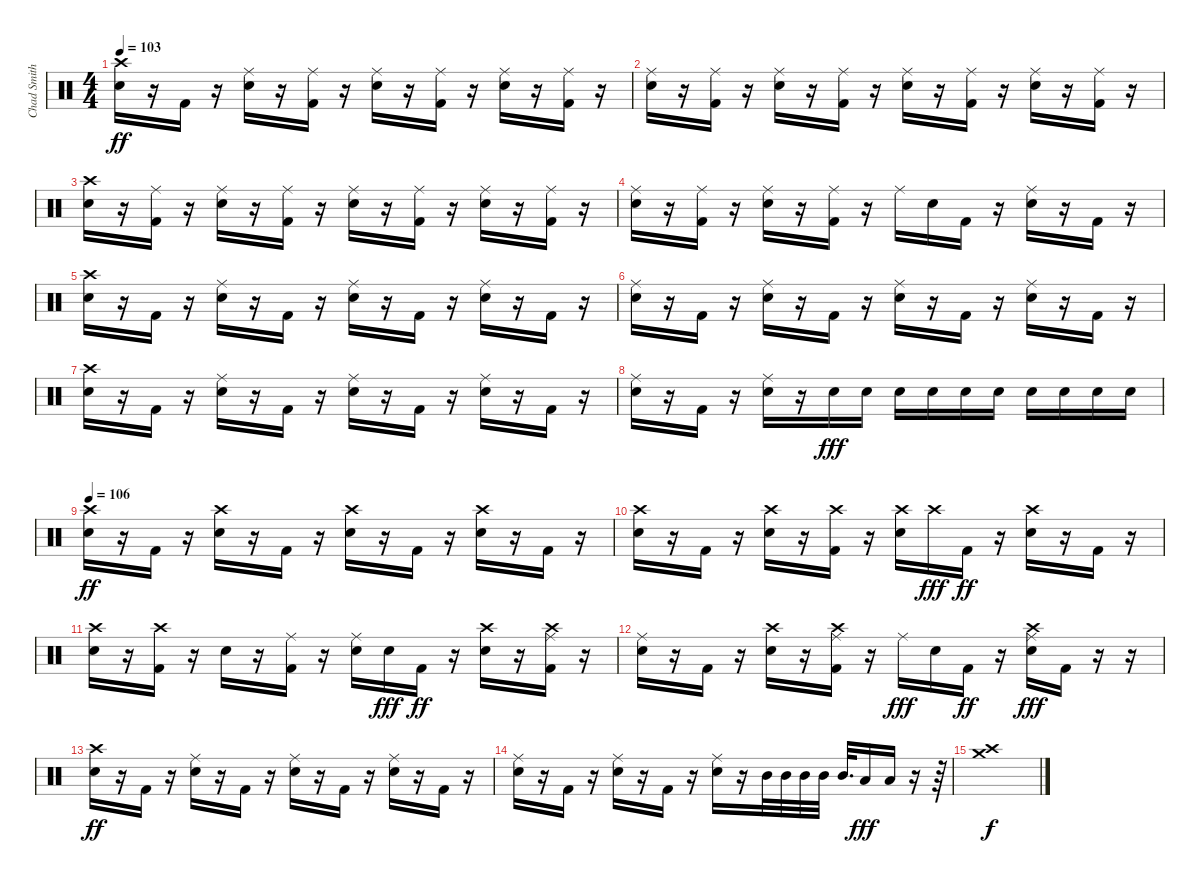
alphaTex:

\track ("Chad Smith - Drums" "Chad Smith") {instrument percussion}
\staff {score}
\articulation defaults
\ts (4 4)
\tempo 103
\clef neutral
\ks c
("Crash high (hit)" "Snare (hit) 2").16{dy ff} r.16 "Kick (hit) 2".16 r.16 ("Ride (middle)" "Snare (hit) 2").16 r.16 ("Ride (middle)" "Kick (hit) 2").16 r.16 ("Ride (middle)" "Snare (hit) 2").16 r.16 ("Ride (middle)" "Kick (hit) 2").16 r.16 ("Ride (middle)" "Snare (hit) 2").16 r.16 ("Ride (middle)" "Kick (hit) 2").16 r.16 |
("Ride (middle)" "Snare (hit) 2").16 r.16 ("Ride (middle)" "Kick (hit) 2").16 r.16 ("Ride (middle)" "Snare (hit) 2").16 r.16 ("Ride (middle)" "Kick (hit) 2").16 r.16 ("Ride (middle)" "Snare (hit) 2").16 r.16 ("Ride (middle)" "Kick (hit) 2").16 r.16 ("Ride (middle)" "Snare (hit) 2").16 r.16 ("Ride (middle)" "Kick (hit) 2").16 r.16 |
("Crash high (hit)" "Snare (hit) 2").16 r.16 ("Ride (middle)" "Kick (hit) 2").16 r.16 ("Ride (middle)" "Snare (hit) 2").16 r.16 ("Ride (middle)" "Kick (hit) 2").16 r.16 ("Ride (middle)" "Snare (hit) 2").16 r.16 ("Ride (middle)" "Kick (hit) 2").16 r.16 ("Ride (middle)" "Snare (hit) 2").16 r.16 ("Ride (middle)" "Kick (hit) 2").16 r.16 |
("Ride (middle)" "Snare (hit) 2").16 r.16 ("Ride (middle)" "Kick (hit) 2").16 r.16 ("Ride (middle)" "Snare (hit) 2").16 r.16 ("Ride (middle)" "Kick (hit) 2").16 r.16 "Ride (middle)".16 "Snare (hit) 2".16 "Kick (hit) 2".16 r.16 ("Ride (middle)" "Snare (hit) 2").16 r.16 "Kick (hit) 2".16 r.16 |
("Crash high (hit)" "Snare (hit) 2").16 r.16 "Kick (hit) 2".16 r.16 ("Ride (middle)" "Snare (hit) 2").16 r.16 "Kick (hit) 2".16 r.16 ("Ride (middle)" "Snare (hit) 2").16 r.16 "Kick (hit) 2".16 r.16 ("Ride (middle)" "Snare (hit) 2").16 r.16 "Kick (hit) 2".16 r.16 |
("Ride (middle)" "Snare (hit) 2").16 r.16 "Kick (hit) 2".16 r.16 ("Ride (middle)" "Snare (hit) 2").16 r.16 "Kick (hit) 2".16 r.16 ("Ride (middle)" "Snare (hit) 2").16 r.16 "Kick (hit) 2".16 r.16 ("Ride (middle)" "Snare (hit) 2").16 r.16 "Kick (hit) 2".16 r.16 |
("Crash high (hit)" "Snare (hit) 2").16 r.16 "Kick (hit) 2".16 r.16 ("Ride (middle)" "Snare (hit) 2").16 r.16 "Kick (hit) 2".16 r.16 ("Ride (middle)" "Snare (hit) 2").16 r.16 "Kick (hit) 2".16 r.16 ("Ride (middle)" "Snare (hit) 2").16 r.16 "Kick (hit) 2".16 r.16 |
("Ride (middle)" "Snare (hit) 2").16 r.16 "Kick (hit) 2".16 r.16 ("Ride (middle)" "Snare (hit) 2").16 r.16 "Snare (hit) 2".16{dy fff} "Snare (hit) 2".16 "Snare (hit) 2".16 "Snare (hit) 2".16 "Snare (hit) 2".16 "Snare (hit) 2".16 "Snare (hit) 2".16 "Snare (hit) 2".16 "Snare (hit) 2".16 "Snare (hit) 2".16 |
\tempo 106
("Crash high (hit)" "Snare (hit) 2").16{dy ff} r.16 "Kick (hit) 2".16 r.16 ("Snare (hit) 2" "Crash high (hit)").16 r.16 "Kick (hit) 2".16 r.16 ("Snare (hit) 2" "Crash high (hit)").16 r.16 "Kick (hit) 2".16 r.16 ("Snare (hit) 2" "Crash high (hit)").16 r.16 "Kick (hit) 2".16 r.16 |
("Snare (hit) 2" "Crash high (hit)").16 r.16 "Kick (hit) 2".16 r.16 ("Snare (hit) 2" "Crash high (hit)").16 r.16 ("Crash high (hit)" "Kick (hit) 2").16 r.16 ("Snare (hit) 2" "Crash high (hit)").16 "Crash high (hit)".16{dy fff} "Kick (hit) 2".16{dy ff} r.16 ("Snare (hit) 2" "Crash high (hit)").16 r.16 "Kick (hit) 2".16 r.16 |
("Crash high (hit)" "Snare (hit) 2").16 r.16 ("Crash high (hit)" "Kick (hit) 2").16 r.16 "Snare (hit) 2".16 r.16 ("Ride (middle)" "Kick (hit) 2").16 r.16 ("Ride (middle)" "Snare (hit) 2").16 "Snare (hit) 2".16{dy fff} "Kick (hit) 2".16{dy ff} r.16 ("Crash high (hit)" "Snare (hit) 2").16 r.16 ("Ride (middle)" "Crash high (hit)" "Kick (hit) 2").16 r.16 |
("Ride (middle)" "Snare (hit) 2").16 r.16 "Kick (hit) 2".16 r.16 ("Crash high (hit)" "Snare (hit) 2").16 r.16 ("Ride (middle)" "Crash high (hit)" "Kick (hit) 2").16 r.16 "Ride (middle)".16{dy fff} "Snare (hit) 2".16 "Kick (hit) 2".16{dy ff} r.16 ("Ride (middle)" "Snare (hit) 2" "Crash high (hit)").16{dy fff} "Kick (hit) 2".16 r.16 r.16 |
("Crash high (hit)" "Snare (hit) 2").16{dy ff} r.16 "Kick (hit) 2".16 r.16 ("Ride (middle)" "Snare (hit) 2").16 r.16 "Kick (hit) 2".16 r.16 ("Ride (middle)" "Snare (hit) 2").16 r.16 "Kick (hit) 2".16 r.16 ("Ride (middle)" "Snare (hit) 2").16 r.16 "Kick (hit) 2".16 r.16 |
("Ride (middle)" "Snare (hit) 2").16 r.16 "Kick (hit) 2".16 r.16 ("Ride (middle)" "Snare (hit) 2").16 r.16 "Kick (hit) 2".16 r.16 ("Ride (middle)" "Snare (hit) 2").16 r.16 "Mid Tom (hit)".32 "Mid Tom (hit)".32 "Mid Tom (hit)".32 "Mid Tom (hit)".32 "Mid Tom (hit)".32{d} "Low Tom (hit)".16{dy fff} "Low Tom (hit)".16 r.16 r.64 |
("Crash medium (hit)" "Crash high (hit)").1{dy f}
